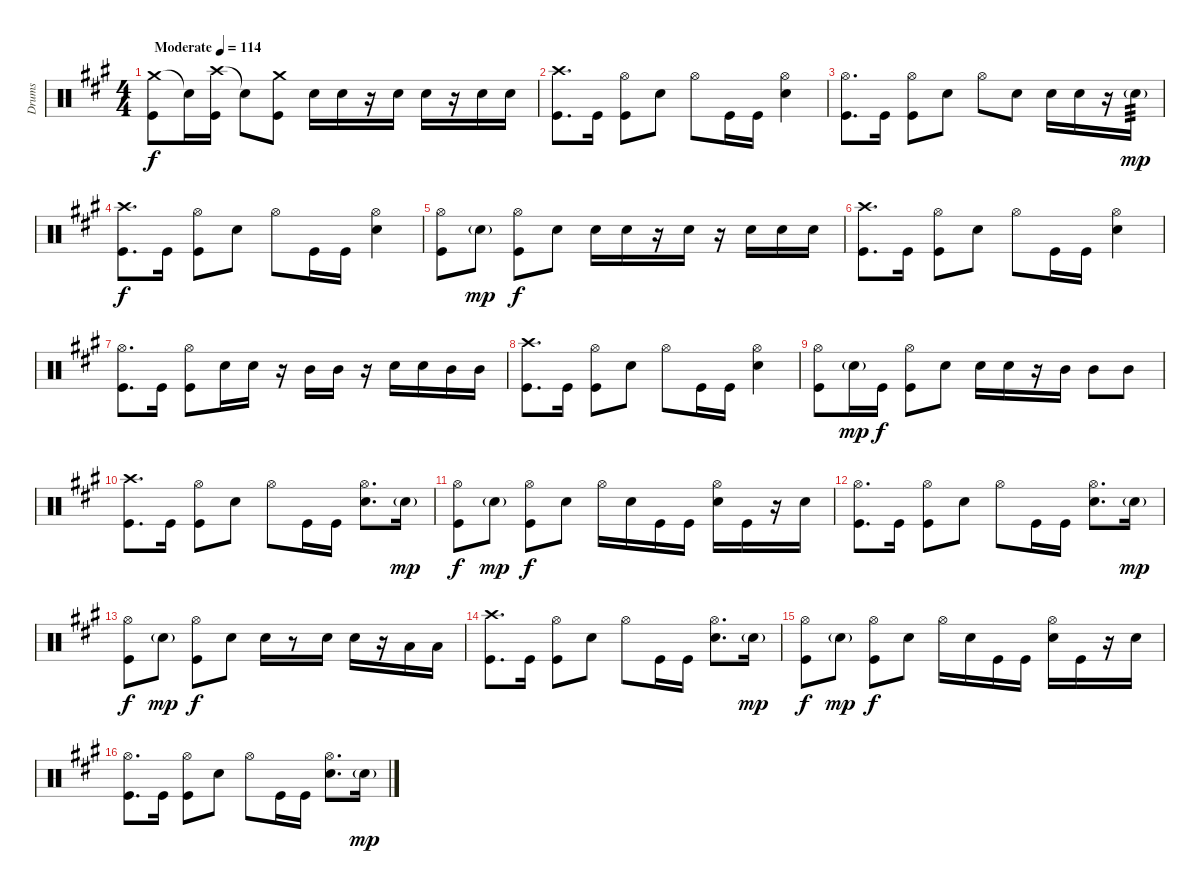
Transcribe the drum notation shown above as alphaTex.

\track ("Drums" "Drums") {instrument percussion}
\staff {score}
\articulation defaults
\ts (4 4)
\tempo (114 "Moderate")
\clef neutral
\ks a
("Crash medium (hit)" "Kick (hit)").8{dy f} "Snare (hit)"{t}.16 ("Crash high (hit)" "Kick (hit)").16 "Snare (hit)"{t}.8 ("Crash medium (hit)" "Kick (hit)").8 "Electric Snare (hit)".16 "Electric Snare (hit)".16 r.16 "Electric Snare (hit)".16 "Electric Snare (hit)".16 r.16 "Electric Snare (hit)".16 "Electric Snare (hit)".16 |
("Crash high (hit)" "Kick (hit)").8{d} "Kick (hit)".16 ("Hi-Hat (open)" "Kick (hit)").8 "Electric Snare (hit)".8 "Hi-Hat (open)".8 "Kick (hit)".16 "Kick (hit)".16 ("Hi-Hat (open)" "Electric Snare (hit)").4 |
("Hi-Hat (open)" "Kick (hit)").8{d} "Kick (hit)".16 ("Hi-Hat (open)" "Kick (hit)").8 "Electric Snare (hit)".8 "Hi-Hat (open)".8 "Electric Snare (hit)".8 "Electric Snare (hit)".16 "Electric Snare (hit)".16 r.16 "Electric Snare (hit)"{g}.16{tp 3 dy mp} |
("Crash high (hit)" "Kick (hit)").8{d dy f} "Kick (hit)".16 ("Hi-Hat (open)" "Kick (hit)").8 "Electric Snare (hit)".8 "Hi-Hat (open)".8 "Kick (hit)".16 "Kick (hit)".16 ("Hi-Hat (open)" "Electric Snare (hit)").4 |
("Hi-Hat (open)" "Kick (hit)").8 "Electric Snare (hit)"{g}.8{dy mp} ("Hi-Hat (open)" "Kick (hit)").8{dy f} "Electric Snare (hit)".8 "Electric Snare (hit)".16 "Electric Snare (hit)".16 r.16 "Electric Snare (hit)".16 r.16 "Electric Snare (hit)".16 "Electric Snare (hit)".16 "Electric Snare (hit)".16 |
("Crash high (hit)" "Kick (hit)").8{d} "Kick (hit)".16 ("Hi-Hat (open)" "Kick (hit)").8 "Electric Snare (hit)".8 "Hi-Hat (open)".8 "Kick (hit)".16 "Kick (hit)".16 ("Hi-Hat (open)" "Electric Snare (hit)").4 |
("Hi-Hat (open)" "Kick (hit)").8{d} "Kick (hit)".16 ("Hi-Hat (open)" "Kick (hit)").8 "Electric Snare (hit)".16 "Electric Snare (hit)".16 r.16 "Mid Tom (hit)".16 "Mid Tom (hit)".16 r.16 "Electric Snare (hit)".16 "Electric Snare (hit)".16 "Mid Tom (hit)".16 "Mid Tom (hit)".16 |
("Crash high (hit)" "Kick (hit)").8{d} "Kick (hit)".16 ("Hi-Hat (open)" "Kick (hit)").8 "Electric Snare (hit)".8 "Hi-Hat (open)".8 "Kick (hit)".16 "Kick (hit)".16 ("Hi-Hat (open)" "Electric Snare (hit)").4 |
("Hi-Hat (open)" "Kick (hit)").8 "Electric Snare (hit)"{g}.16{dy mp} "Kick (hit)".16{dy f} ("Hi-Hat (open)" "Kick (hit)").8 "Electric Snare (hit)".8 "Electric Snare (hit)".16 "Electric Snare (hit)".16 r.16 "Mid Tom (hit)".16 "Mid Tom (hit)".8 "Mid Tom (hit)".8 |
("Crash high (hit)" "Kick (hit)").8{d} "Kick (hit)".16 ("Hi-Hat (open)" "Kick (hit)").8 "Electric Snare (hit)".8 "Hi-Hat (open)".8 "Kick (hit)".16 "Kick (hit)".16 ("Hi-Hat (open)" "Electric Snare (hit)").8{d} "Electric Snare (hit)"{g}.16{dy mp} |
("Hi-Hat (open)" "Kick (hit)").8{dy f} "Electric Snare (hit)"{g}.8{dy mp} ("Hi-Hat (open)" "Kick (hit)").8{dy f} "Electric Snare (hit)".8 "Hi-Hat (open)".16 "Electric Snare (hit)".16 "Kick (hit)".16 "Kick (hit)".16 ("Hi-Hat (open)" "Electric Snare (hit)").16 "Kick (hit)".16 r.16 "Electric Snare (hit)".16 |
("Hi-Hat (open)" "Kick (hit)").8{d} "Kick (hit)".16 ("Hi-Hat (open)" "Kick (hit)").8 "Electric Snare (hit)".8 "Hi-Hat (open)".8 "Kick (hit)".16 "Kick (hit)".16 ("Hi-Hat (open)" "Electric Snare (hit)").8{d} "Electric Snare (hit)"{g}.16{dy mp} |
("Hi-Hat (open)" "Kick (hit)").8{dy f} "Electric Snare (hit)"{g}.8{dy mp} ("Hi-Hat (open)" "Kick (hit)").8{dy f} "Electric Snare (hit)".8 "Electric Snare (hit)".16 r.8 "Electric Snare (hit)".16 "Electric Snare (hit)".16 r.16 "Low Tom (hit)".16 "Low Tom (hit)".16 |
("Crash high (hit)" "Kick (hit)").8{d} "Kick (hit)".16 ("Hi-Hat (open)" "Kick (hit)").8 "Electric Snare (hit)".8 "Hi-Hat (open)".8 "Kick (hit)".16 "Kick (hit)".16 ("Hi-Hat (open)" "Electric Snare (hit)").8{d} "Electric Snare (hit)"{g}.16{dy mp} |
("Hi-Hat (open)" "Kick (hit)").8{dy f} "Electric Snare (hit)"{g}.8{dy mp} ("Hi-Hat (open)" "Kick (hit)").8{dy f} "Electric Snare (hit)".8 "Hi-Hat (open)".16 "Electric Snare (hit)".16 "Kick (hit)".16 "Kick (hit)".16 ("Hi-Hat (open)" "Electric Snare (hit)").16 "Kick (hit)".16 r.16 "Electric Snare (hit)".16 |
("Hi-Hat (open)" "Kick (hit)").8{d} "Kick (hit)".16 ("Hi-Hat (open)" "Kick (hit)").8 "Electric Snare (hit)".8 "Hi-Hat (open)".8 "Kick (hit)".16 "Kick (hit)".16 ("Hi-Hat (open)" "Electric Snare (hit)").8{d} "Electric Snare (hit)"{g}.16{dy mp}
